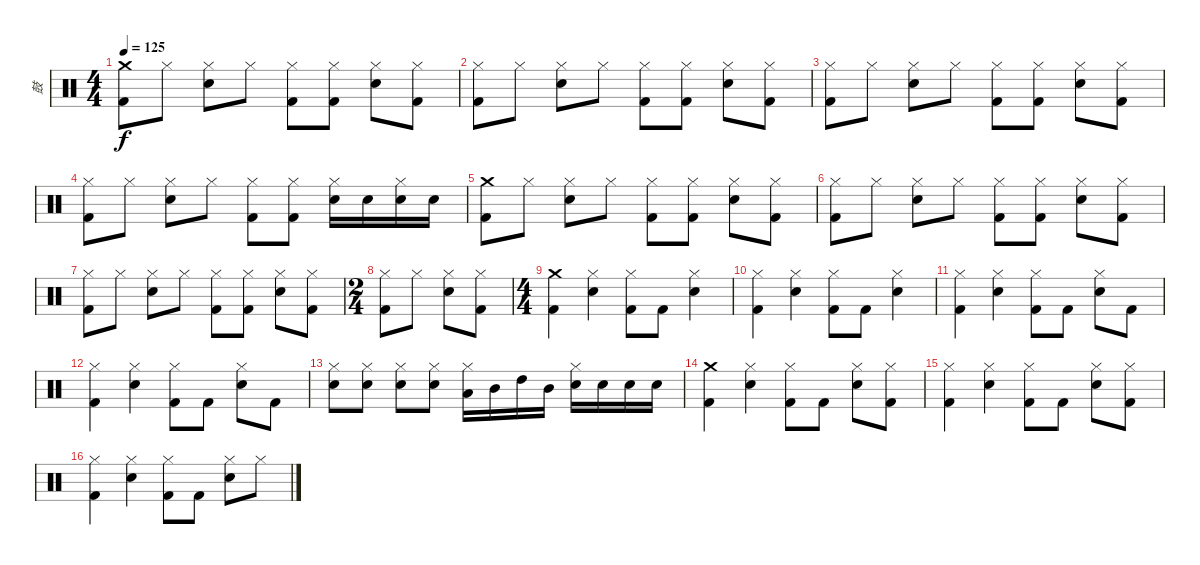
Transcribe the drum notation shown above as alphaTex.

\track ("鼓" "鼓") {instrument percussion}
\staff {score}
\articulation defaults
\ts (4 4)
\tempo 125
\clef neutral
\ks c
("Crash medium (hit)" "Kick (hit) 2").8{dy f} "Hi-Hat (closed)".8 ("Hi-Hat (closed)" "Electric Snare (hit)").8 "Hi-Hat (closed)".8 ("Hi-Hat (closed)" "Kick (hit) 2").8 ("Hi-Hat (closed)" "Kick (hit) 2").8 ("Hi-Hat (closed)" "Electric Snare (hit)").8 ("Hi-Hat (closed)" "Kick (hit) 2").8 |
("Hi-Hat (closed)" "Kick (hit) 2").8 "Hi-Hat (closed)".8 ("Hi-Hat (closed)" "Electric Snare (hit)").8 "Hi-Hat (closed)".8 ("Hi-Hat (closed)" "Kick (hit) 2").8 ("Hi-Hat (closed)" "Kick (hit) 2").8 ("Hi-Hat (closed)" "Electric Snare (hit)").8 ("Hi-Hat (closed)" "Kick (hit) 2").8 |
("Hi-Hat (closed)" "Kick (hit) 2").8 "Hi-Hat (closed)".8 ("Hi-Hat (closed)" "Electric Snare (hit)").8 "Hi-Hat (closed)".8 ("Hi-Hat (closed)" "Kick (hit) 2").8 ("Hi-Hat (closed)" "Kick (hit) 2").8 ("Hi-Hat (closed)" "Electric Snare (hit)").8 ("Hi-Hat (closed)" "Kick (hit) 2").8 |
("Hi-Hat (closed)" "Kick (hit) 2").8 "Hi-Hat (closed)".8 ("Hi-Hat (closed)" "Electric Snare (hit)").8 "Hi-Hat (closed)".8 ("Hi-Hat (closed)" "Kick (hit) 2").8 ("Hi-Hat (closed)" "Kick (hit) 2").8 ("Hi-Hat (closed)" "Electric Snare (hit)").16 "Electric Snare (hit)".16 ("Hi-Hat (closed)" "Electric Snare (hit)").16 "Electric Snare (hit)".16 |
("Crash medium (hit)" "Kick (hit) 2").8 "Hi-Hat (closed)".8 ("Hi-Hat (closed)" "Electric Snare (hit)").8 "Hi-Hat (closed)".8 ("Hi-Hat (closed)" "Kick (hit) 2").8 ("Hi-Hat (closed)" "Kick (hit) 2").8 ("Hi-Hat (closed)" "Electric Snare (hit)").8 ("Hi-Hat (closed)" "Kick (hit) 2").8 |
("Hi-Hat (closed)" "Kick (hit) 2").8 "Hi-Hat (closed)".8 ("Hi-Hat (closed)" "Electric Snare (hit)").8 "Hi-Hat (closed)".8 ("Hi-Hat (closed)" "Kick (hit) 2").8 ("Hi-Hat (closed)" "Kick (hit) 2").8 ("Hi-Hat (closed)" "Electric Snare (hit)").8 ("Hi-Hat (closed)" "Kick (hit) 2").8 |
("Hi-Hat (closed)" "Kick (hit) 2").8 "Hi-Hat (closed)".8 ("Hi-Hat (closed)" "Electric Snare (hit)").8 "Hi-Hat (closed)".8 ("Hi-Hat (closed)" "Kick (hit) 2").8 ("Hi-Hat (closed)" "Kick (hit) 2").8 ("Hi-Hat (closed)" "Electric Snare (hit)").8 ("Hi-Hat (closed)" "Kick (hit) 2").8 |
\ts (2 4)
("Hi-Hat (closed)" "Kick (hit) 2").8 "Hi-Hat (closed)".8 ("Hi-Hat (closed)" "Electric Snare (hit)").8 ("Hi-Hat (closed)" "Kick (hit) 2").8 |
\ts (4 4)
("Crash medium (hit)" "Kick (hit) 2").4 ("Hi-Hat (closed)" "Electric Snare (hit)").4 ("Hi-Hat (closed)" "Kick (hit) 2").8 "Kick (hit) 2".8 ("Hi-Hat (closed)" "Electric Snare (hit)").4 |
("Hi-Hat (closed)" "Kick (hit) 2").4 ("Hi-Hat (closed)" "Electric Snare (hit)").4 ("Hi-Hat (closed)" "Kick (hit) 2").8 "Kick (hit) 2".8 ("Hi-Hat (closed)" "Electric Snare (hit)").4 |
("Hi-Hat (closed)" "Kick (hit) 2").4 ("Hi-Hat (closed)" "Electric Snare (hit)").4 ("Hi-Hat (closed)" "Kick (hit) 2").8 "Kick (hit) 2".8 ("Hi-Hat (closed)" "Electric Snare (hit)").8 "Kick (hit) 2".8 |
("Hi-Hat (closed)" "Kick (hit) 2").4 ("Hi-Hat (closed)" "Electric Snare (hit)").4 ("Hi-Hat (closed)" "Kick (hit) 2").8 "Kick (hit) 2".8 ("Hi-Hat (closed)" "Electric Snare (hit)").8 "Kick (hit) 2".8 |
("Hi-Hat (closed)" "Electric Snare (hit)").8 ("Hi-Hat (closed)" "Electric Snare (hit)").8 ("Hi-Hat (closed)" "Electric Snare (hit)").8 ("Hi-Hat (closed)" "Electric Snare (hit)").8 ("Hi-Hat (closed)" "Low Tom (hit)").16 "Mid Tom (hit)".16 "High Tom (hit)".16 "Mid Tom (hit)".16 ("Hi-Hat (closed)" "Electric Snare (hit)").16 "Electric Snare (hit)".16 "Electric Snare (hit)".16 "Electric Snare (hit)".16 |
("Crash medium (hit)" "Kick (hit) 2").4 ("Hi-Hat (closed)" "Electric Snare (hit)").4 ("Hi-Hat (closed)" "Kick (hit) 2").8 "Kick (hit) 2".8 ("Hi-Hat (closed)" "Electric Snare (hit)").8 ("Hi-Hat (closed)" "Kick (hit) 2").8 |
("Hi-Hat (closed)" "Kick (hit) 2").4 ("Hi-Hat (closed)" "Electric Snare (hit)").4 ("Hi-Hat (closed)" "Kick (hit) 2").8 "Kick (hit) 2".8 ("Hi-Hat (closed)" "Electric Snare (hit)").8 ("Hi-Hat (closed)" "Kick (hit) 2").8 |
("Hi-Hat (closed)" "Kick (hit) 2").4 ("Hi-Hat (closed)" "Electric Snare (hit)").4 ("Hi-Hat (closed)" "Kick (hit) 2").8 "Kick (hit) 2".8 ("Hi-Hat (closed)" "Electric Snare (hit)").8 "Hi-Hat (closed)".8
